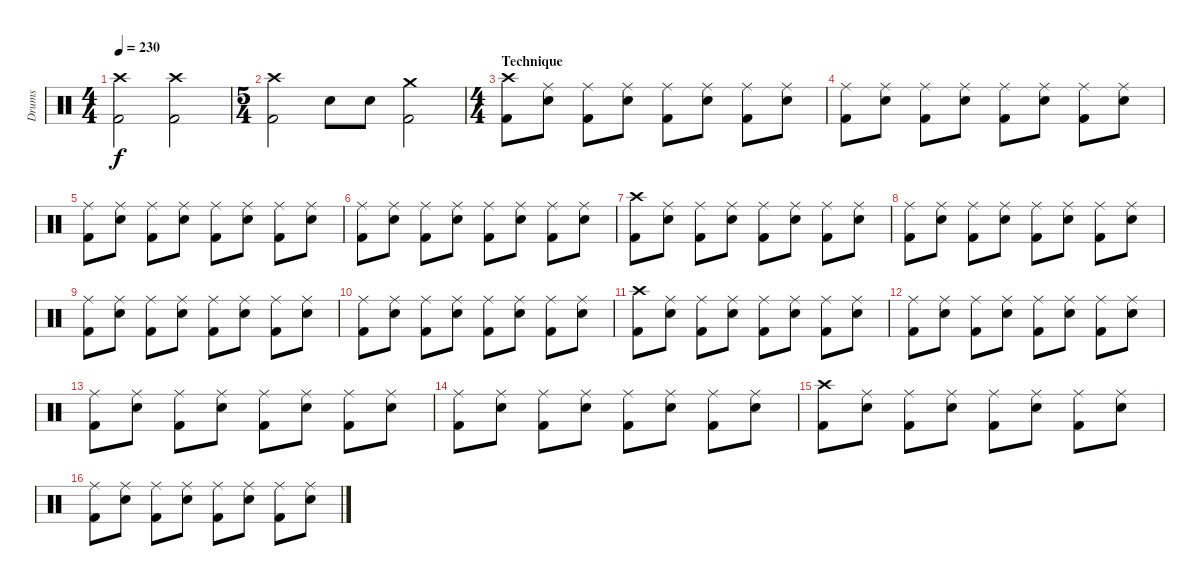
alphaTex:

\track ("Drums" "Drums") {instrument percussion}
\staff {score}
\articulation defaults
\ts (4 4)
\tempo 230
\clef neutral
\ks c
("Crash high (hit)" "Kick (hit) 2").2{dy f} ("Crash high (hit)" "Kick (hit) 2").2 |
\ts (5 4)
("Crash high (hit)" "Kick (hit) 2").2 "Snare (hit) 2".8 "Snare (hit) 2".8 ("Crash medium (hit)" "Kick (hit) 2").2 |
\ts (4 4)
\section ("" "Technique")
("Crash high (hit)" "Kick (hit) 2").8 ("Ride (middle)" "Snare (hit) 2").8 ("Ride (middle)" "Kick (hit) 2").8 ("Ride (middle)" "Snare (hit) 2").8 ("Ride (middle)" "Kick (hit) 2").8 ("Ride (middle)" "Snare (hit) 2").8 ("Ride (middle)" "Kick (hit) 2").8 ("Ride (middle)" "Snare (hit) 2").8 |
("Ride (middle)" "Kick (hit) 2").8 ("Ride (middle)" "Snare (hit) 2").8 ("Ride (middle)" "Kick (hit) 2").8 ("Ride (middle)" "Snare (hit) 2").8 ("Ride (middle)" "Kick (hit) 2").8 ("Ride (middle)" "Snare (hit) 2").8 ("Ride (middle)" "Kick (hit) 2").8 ("Ride (middle)" "Snare (hit) 2").8 |
("Ride (middle)" "Kick (hit) 2").8 ("Ride (middle)" "Snare (hit) 2").8 ("Ride (middle)" "Kick (hit) 2").8 ("Ride (middle)" "Snare (hit) 2").8 ("Ride (middle)" "Kick (hit) 2").8 ("Ride (middle)" "Snare (hit) 2").8 ("Ride (middle)" "Kick (hit) 2").8 ("Ride (middle)" "Snare (hit) 2").8 |
("Ride (middle)" "Kick (hit) 2").8 ("Ride (middle)" "Snare (hit) 2").8 ("Ride (middle)" "Kick (hit) 2").8 ("Ride (middle)" "Snare (hit) 2").8 ("Ride (middle)" "Kick (hit) 2").8 ("Ride (middle)" "Snare (hit) 2").8 ("Ride (middle)" "Kick (hit) 2").8 ("Ride (middle)" "Snare (hit) 2").8 |
("Crash high (hit)" "Kick (hit) 2").8 ("Ride (middle)" "Snare (hit) 2").8 ("Ride (middle)" "Kick (hit) 2").8 ("Ride (middle)" "Snare (hit) 2").8 ("Ride (middle)" "Kick (hit) 2").8 ("Ride (middle)" "Snare (hit) 2").8 ("Ride (middle)" "Kick (hit) 2").8 ("Ride (middle)" "Snare (hit) 2").8 |
("Ride (middle)" "Kick (hit) 2").8 ("Ride (middle)" "Snare (hit) 2").8 ("Ride (middle)" "Kick (hit) 2").8 ("Ride (middle)" "Snare (hit) 2").8 ("Ride (middle)" "Kick (hit) 2").8 ("Ride (middle)" "Snare (hit) 2").8 ("Ride (middle)" "Kick (hit) 2").8 ("Ride (middle)" "Snare (hit) 2").8 |
("Ride (middle)" "Kick (hit) 2").8 ("Ride (middle)" "Snare (hit) 2").8 ("Ride (middle)" "Kick (hit) 2").8 ("Ride (middle)" "Snare (hit) 2").8 ("Ride (middle)" "Kick (hit) 2").8 ("Ride (middle)" "Snare (hit) 2").8 ("Ride (middle)" "Kick (hit) 2").8 ("Ride (middle)" "Snare (hit) 2").8 |
("Ride (middle)" "Kick (hit) 2").8 ("Ride (middle)" "Snare (hit) 2").8 ("Ride (middle)" "Kick (hit) 2").8 ("Ride (middle)" "Snare (hit) 2").8 ("Ride (middle)" "Kick (hit) 2").8 ("Ride (middle)" "Snare (hit) 2").8 ("Ride (middle)" "Kick (hit) 2").8 ("Ride (middle)" "Snare (hit) 2").8 |
("Crash high (hit)" "Kick (hit) 2").8 ("Ride (middle)" "Snare (hit) 2").8 ("Ride (middle)" "Kick (hit) 2").8 ("Ride (middle)" "Snare (hit) 2").8 ("Ride (middle)" "Kick (hit) 2").8 ("Ride (middle)" "Snare (hit) 2").8 ("Ride (middle)" "Kick (hit) 2").8 ("Ride (middle)" "Snare (hit) 2").8 |
("Ride (middle)" "Kick (hit) 2").8 ("Ride (middle)" "Snare (hit) 2").8 ("Ride (middle)" "Kick (hit) 2").8 ("Ride (middle)" "Snare (hit) 2").8 ("Ride (middle)" "Kick (hit) 2").8 ("Ride (middle)" "Snare (hit) 2").8 ("Ride (middle)" "Kick (hit) 2").8 ("Ride (middle)" "Snare (hit) 2").8 |
("Ride (middle)" "Kick (hit) 2").8 ("Ride (middle)" "Snare (hit) 2").8 ("Ride (middle)" "Kick (hit) 2").8 ("Ride (middle)" "Snare (hit) 2").8 ("Ride (middle)" "Kick (hit) 2").8 ("Ride (middle)" "Snare (hit) 2").8 ("Ride (middle)" "Kick (hit) 2").8 ("Ride (middle)" "Snare (hit) 2").8 |
("Ride (middle)" "Kick (hit) 2").8 ("Ride (middle)" "Snare (hit) 2").8 ("Ride (middle)" "Kick (hit) 2").8 ("Ride (middle)" "Snare (hit) 2").8 ("Ride (middle)" "Kick (hit) 2").8 ("Ride (middle)" "Snare (hit) 2").8 ("Ride (middle)" "Kick (hit) 2").8 ("Ride (middle)" "Snare (hit) 2").8 |
("Crash high (hit)" "Kick (hit) 2").8 ("Ride (middle)" "Snare (hit) 2").8 ("Ride (middle)" "Kick (hit) 2").8 ("Ride (middle)" "Snare (hit) 2").8 ("Ride (middle)" "Kick (hit) 2").8 ("Ride (middle)" "Snare (hit) 2").8 ("Ride (middle)" "Kick (hit) 2").8 ("Ride (middle)" "Snare (hit) 2").8 |
("Ride (middle)" "Kick (hit) 2").8 ("Ride (middle)" "Snare (hit) 2").8 ("Ride (middle)" "Kick (hit) 2").8 ("Ride (middle)" "Snare (hit) 2").8 ("Ride (middle)" "Kick (hit) 2").8 ("Ride (middle)" "Snare (hit) 2").8 ("Ride (middle)" "Kick (hit) 2").8 ("Ride (middle)" "Snare (hit) 2").8
